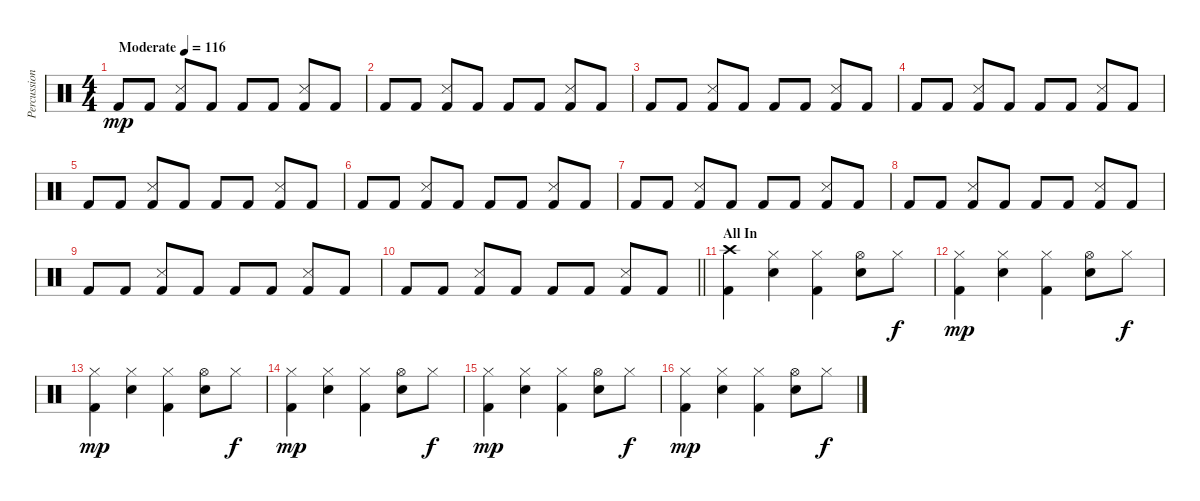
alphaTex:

\track ("Percussion" "Percussion") {instrument percussion}
\staff {score}
\articulation defaults
\ts (4 4)
\tempo (116 "Moderate")
\clef neutral
\ks c "Kick (hit) 2".8{dy mp} "Kick (hit) 2".8
("Snare (side stick) 3" "Kick (hit) 2").8 "Kick (hit) 2".8 "Kick (hit) 2".8 "Kick (hit) 2".8 ("Snare (side stick) 3" "Kick (hit) 2").8 "Kick (hit) 2".8 |
"Kick (hit) 2".8 "Kick (hit) 2".8 ("Snare (side stick) 3" "Kick (hit) 2").8 "Kick (hit) 2".8 "Kick (hit) 2".8 "Kick (hit) 2".8 ("Snare (side stick) 3" "Kick (hit) 2").8 "Kick (hit) 2".8 |
"Kick (hit) 2".8 "Kick (hit) 2".8 ("Snare (side stick) 3" "Kick (hit) 2").8 "Kick (hit) 2".8 "Kick (hit) 2".8 "Kick (hit) 2".8 ("Snare (side stick) 3" "Kick (hit) 2").8 "Kick (hit) 2".8 |
"Kick (hit) 2".8 "Kick (hit) 2".8 ("Snare (side stick) 3" "Kick (hit) 2").8 "Kick (hit) 2".8 "Kick (hit) 2".8 "Kick (hit) 2".8 ("Snare (side stick) 3" "Kick (hit) 2").8 "Kick (hit) 2".8 |
"Kick (hit) 2".8 "Kick (hit) 2".8 ("Snare (side stick) 3" "Kick (hit) 2").8 "Kick (hit) 2".8 "Kick (hit) 2".8 "Kick (hit) 2".8 ("Snare (side stick) 3" "Kick (hit) 2").8 "Kick (hit) 2".8 |
"Kick (hit) 2".8 "Kick (hit) 2".8 ("Snare (side stick) 3" "Kick (hit) 2").8 "Kick (hit) 2".8 "Kick (hit) 2".8 "Kick (hit) 2".8 ("Snare (side stick) 3" "Kick (hit) 2").8 "Kick (hit) 2".8 |
"Kick (hit) 2".8 "Kick (hit) 2".8 ("Snare (side stick) 3" "Kick (hit) 2").8 "Kick (hit) 2".8 "Kick (hit) 2".8 "Kick (hit) 2".8 ("Snare (side stick) 3" "Kick (hit) 2").8 "Kick (hit) 2".8 |
"Kick (hit) 2".8 "Kick (hit) 2".8 ("Snare (side stick) 3" "Kick (hit) 2").8 "Kick (hit) 2".8 "Kick (hit) 2".8 "Kick (hit) 2".8 ("Snare (side stick) 3" "Kick (hit) 2").8 "Kick (hit) 2".8 |
"Kick (hit) 2".8 "Kick (hit) 2".8 ("Snare (side stick) 3" "Kick (hit) 2").8 "Kick (hit) 2".8 "Kick (hit) 2".8 "Kick (hit) 2".8 ("Snare (side stick) 3" "Kick (hit) 2").8 "Kick (hit) 2".8 |
\barLineRight lightlight "Kick (hit) 2".8 "Kick (hit) 2".8
("Snare (side stick) 3" "Kick (hit) 2").8 "Kick (hit) 2".8 "Kick (hit) 2".8 "Kick (hit) 2".8 ("Snare (side stick) 3" "Kick (hit) 2").8 "Kick (hit) 2".8 |
\section ("" "All In")
("Crash high (hit)" "Kick (hit) 2").4 ("Hi-Hat (closed)" "Snare (hit) 2").4 ("Hi-Hat (closed)" "Kick (hit) 2").4 ("Hi-Hat (open)" "Snare (hit) 2").8 "Hi-Hat (closed)".8{dy f} |
("Hi-Hat (closed)" "Kick (hit) 2").4{dy mp} ("Hi-Hat (closed)" "Snare (hit) 2").4 ("Hi-Hat (closed)" "Kick (hit) 2").4 ("Hi-Hat (open)" "Snare (hit) 2").8 "Hi-Hat (closed)".8{dy f} |
("Hi-Hat (closed)" "Kick (hit) 2").4{dy mp} ("Hi-Hat (closed)" "Snare (hit) 2").4 ("Hi-Hat (closed)" "Kick (hit) 2").4 ("Hi-Hat (open)" "Snare (hit) 2").8 "Hi-Hat (closed)".8{dy f} |
("Hi-Hat (closed)" "Kick (hit) 2").4{dy mp} ("Hi-Hat (closed)" "Snare (hit) 2").4 ("Hi-Hat (closed)" "Kick (hit) 2").4 ("Hi-Hat (open)" "Snare (hit) 2").8 "Hi-Hat (closed)".8{dy f} |
("Hi-Hat (closed)" "Kick (hit) 2").4{dy mp} ("Hi-Hat (closed)" "Snare (hit) 2").4 ("Hi-Hat (closed)" "Kick (hit) 2").4 ("Hi-Hat (open)" "Snare (hit) 2").8 "Hi-Hat (closed)".8{dy f} |
("Hi-Hat (closed)" "Kick (hit) 2").4{dy mp} ("Hi-Hat (closed)" "Snare (hit) 2").4 ("Hi-Hat (closed)" "Kick (hit) 2").4 ("Hi-Hat (open)" "Snare (hit) 2").8 "Hi-Hat (closed)".8{dy f}
